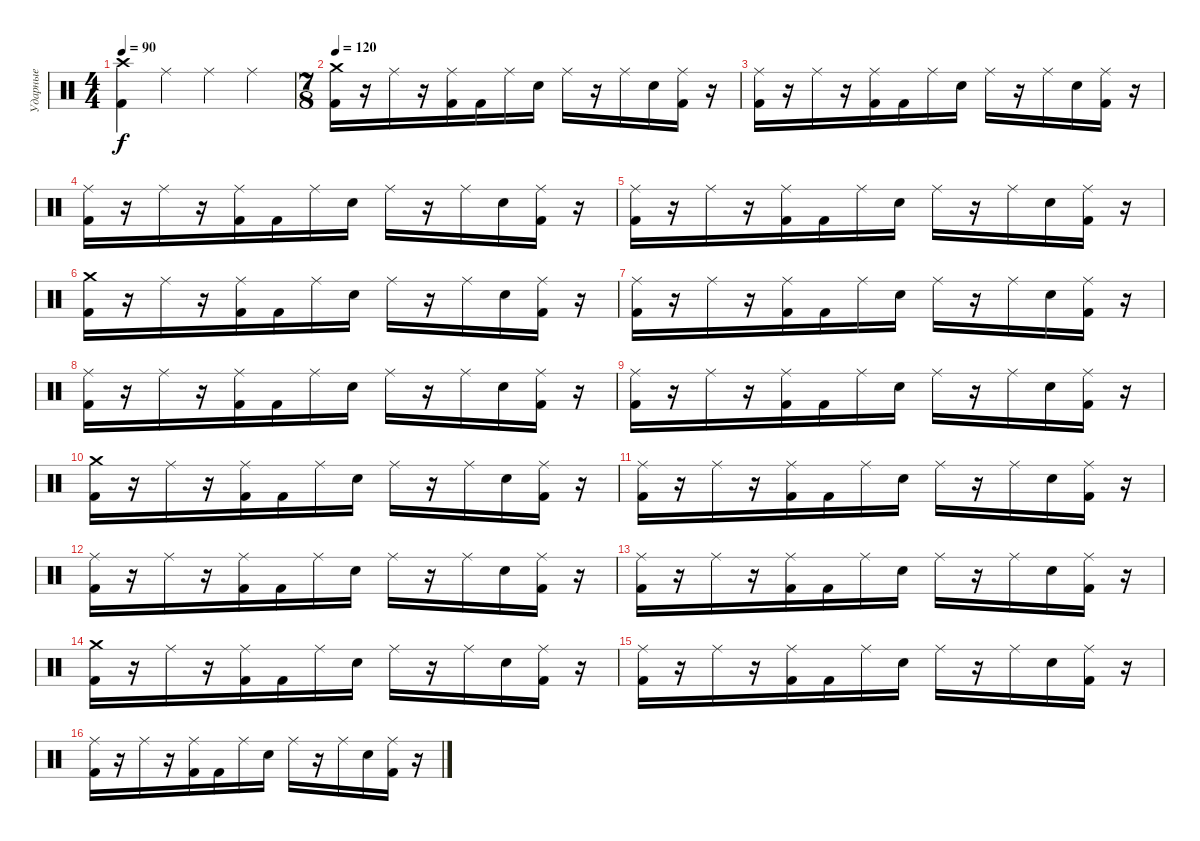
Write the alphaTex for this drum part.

\track ("Ударные" "Ударные") {instrument percussion}
\staff {score}
\articulation defaults
\ts (4 4)
\tempo 90
\clef neutral
\ks c
("Crash high (hit)" "Kick (hit) 2").4{dy f} "Ride (middle)".4 "Ride (middle)".4 "Ride (middle)".4 |
\ts (7 8)
\tempo 120
("Crash medium (hit)" "Kick (hit) 2").16 r.16 "Ride (middle)".16 r.16 ("Ride (middle)" "Kick (hit) 2").16 "Kick (hit) 2".16 "Ride (middle)".16 "Electric Snare (hit)".16 "Ride (middle)".16 r.16 "Ride (middle)".16 "Electric Snare (hit)".16 ("Ride (middle)" "Kick (hit) 2").16 r.16 |
("Ride (middle)" "Kick (hit) 2").16 r.16 "Ride (middle)".16 r.16 ("Ride (middle)" "Kick (hit) 2").16 "Kick (hit) 2".16 "Ride (middle)".16 "Electric Snare (hit)".16 "Ride (middle)".16 r.16 "Ride (middle)".16 "Electric Snare (hit)".16 ("Ride (middle)" "Kick (hit) 2").16 r.16 |
("Ride (middle)" "Kick (hit) 2").16 r.16 "Ride (middle)".16 r.16 ("Ride (middle)" "Kick (hit) 2").16 "Kick (hit) 2".16 "Ride (middle)".16 "Electric Snare (hit)".16 "Ride (middle)".16 r.16 "Ride (middle)".16 "Electric Snare (hit)".16 ("Ride (middle)" "Kick (hit) 2").16 r.16 |
("Ride (middle)" "Kick (hit) 2").16 r.16 "Ride (middle)".16 r.16 ("Ride (middle)" "Kick (hit) 2").16 "Kick (hit) 2".16 "Ride (middle)".16 "Electric Snare (hit)".16 "Ride (middle)".16 r.16 "Ride (middle)".16 "Electric Snare (hit)".16 ("Ride (middle)" "Kick (hit) 2").16 r.16 |
("Crash medium (hit)" "Kick (hit) 2").16 r.16 "Ride (middle)".16 r.16 ("Ride (middle)" "Kick (hit) 2").16 "Kick (hit) 2".16 "Ride (middle)".16 "Electric Snare (hit)".16 "Ride (middle)".16 r.16 "Ride (middle)".16 "Electric Snare (hit)".16 ("Ride (middle)" "Kick (hit) 2").16 r.16 |
("Ride (middle)" "Kick (hit) 2").16 r.16 "Ride (middle)".16 r.16 ("Ride (middle)" "Kick (hit) 2").16 "Kick (hit) 2".16 "Ride (middle)".16 "Electric Snare (hit)".16 "Ride (middle)".16 r.16 "Ride (middle)".16 "Electric Snare (hit)".16 ("Ride (middle)" "Kick (hit) 2").16 r.16 |
("Ride (middle)" "Kick (hit) 2").16 r.16 "Ride (middle)".16 r.16 ("Ride (middle)" "Kick (hit) 2").16 "Kick (hit) 2".16 "Ride (middle)".16 "Electric Snare (hit)".16 "Ride (middle)".16 r.16 "Ride (middle)".16 "Electric Snare (hit)".16 ("Ride (middle)" "Kick (hit) 2").16 r.16 |
("Ride (middle)" "Kick (hit) 2").16 r.16 "Ride (middle)".16 r.16 ("Ride (middle)" "Kick (hit) 2").16 "Kick (hit) 2".16 "Ride (middle)".16 "Electric Snare (hit)".16 "Ride (middle)".16 r.16 "Ride (middle)".16 "Electric Snare (hit)".16 ("Ride (middle)" "Kick (hit) 2").16 r.16 |
("Crash medium (hit)" "Kick (hit) 2").16 r.16 "Ride (middle)".16 r.16 ("Ride (middle)" "Kick (hit) 2").16 "Kick (hit) 2".16 "Ride (middle)".16 "Electric Snare (hit)".16 "Ride (middle)".16 r.16 "Ride (middle)".16 "Electric Snare (hit)".16 ("Ride (middle)" "Kick (hit) 2").16 r.16 |
("Ride (middle)" "Kick (hit) 2").16 r.16 "Ride (middle)".16 r.16 ("Ride (middle)" "Kick (hit) 2").16 "Kick (hit) 2".16 "Ride (middle)".16 "Electric Snare (hit)".16 "Ride (middle)".16 r.16 "Ride (middle)".16 "Electric Snare (hit)".16 ("Ride (middle)" "Kick (hit) 2").16 r.16 |
("Ride (middle)" "Kick (hit) 2").16 r.16 "Ride (middle)".16 r.16 ("Ride (middle)" "Kick (hit) 2").16 "Kick (hit) 2".16 "Ride (middle)".16 "Electric Snare (hit)".16 "Ride (middle)".16 r.16 "Ride (middle)".16 "Electric Snare (hit)".16 ("Ride (middle)" "Kick (hit) 2").16 r.16 |
("Ride (middle)" "Kick (hit) 2").16 r.16 "Ride (middle)".16 r.16 ("Ride (middle)" "Kick (hit) 2").16 "Kick (hit) 2".16 "Ride (middle)".16 "Electric Snare (hit)".16 "Ride (middle)".16 r.16 "Ride (middle)".16 "Electric Snare (hit)".16 ("Ride (middle)" "Kick (hit) 2").16 r.16 |
("Crash medium (hit)" "Kick (hit) 2").16 r.16 "Ride (middle)".16 r.16 ("Ride (middle)" "Kick (hit) 2").16 "Kick (hit) 2".16 "Ride (middle)".16 "Electric Snare (hit)".16 "Ride (middle)".16 r.16 "Ride (middle)".16 "Electric Snare (hit)".16 ("Ride (middle)" "Kick (hit) 2").16 r.16 |
("Ride (middle)" "Kick (hit) 2").16 r.16 "Ride (middle)".16 r.16 ("Ride (middle)" "Kick (hit) 2").16 "Kick (hit) 2".16 "Ride (middle)".16 "Electric Snare (hit)".16 "Ride (middle)".16 r.16 "Ride (middle)".16 "Electric Snare (hit)".16 ("Ride (middle)" "Kick (hit) 2").16 r.16 |
("Ride (middle)" "Kick (hit) 2").16 r.16 "Ride (middle)".16 r.16 ("Ride (middle)" "Kick (hit) 2").16 "Kick (hit) 2".16 "Ride (middle)".16 "Electric Snare (hit)".16 "Ride (middle)".16 r.16 "Ride (middle)".16 "Electric Snare (hit)".16 ("Ride (middle)" "Kick (hit) 2").16 r.16
